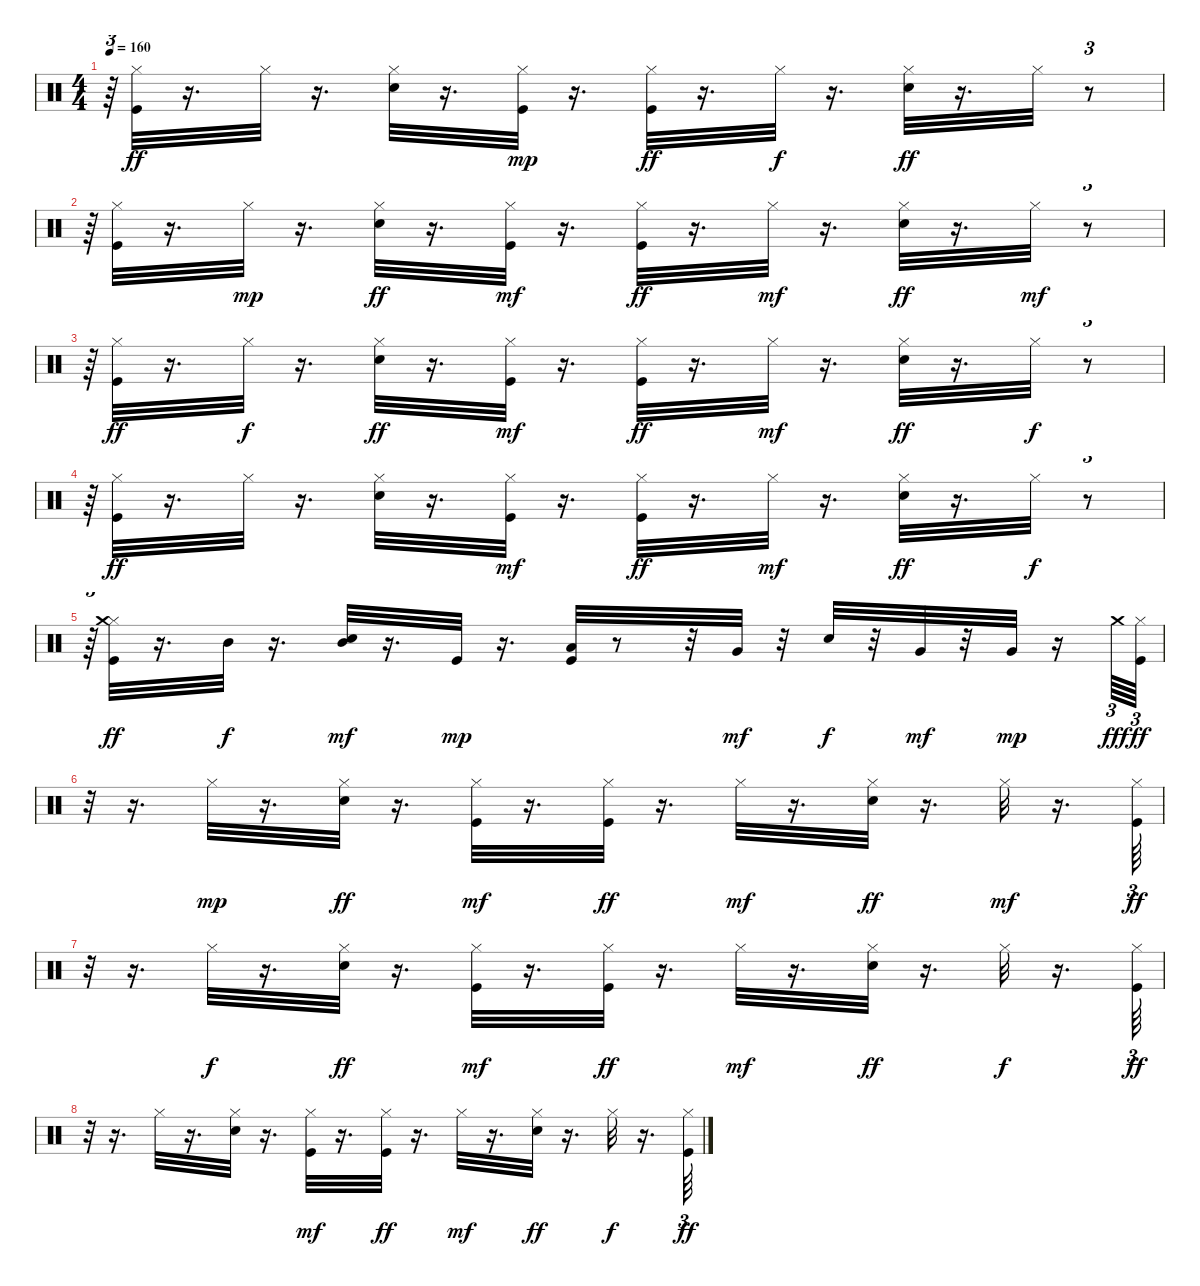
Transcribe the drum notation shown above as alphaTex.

\track "" {instrument percussion}
\staff {score}
\articulation defaults
\ts (4 4)
\tempo 160
\clef neutral
\ks c
r.64{tu (3 2) dy f} ("Kick (hit)" "Hi-Hat (closed)").32{dy ff} r.16{d} "Hi-Hat (closed)".32 r.16{d} ("Hi-Hat (closed)" "Electric Snare (hit)").32 r.16{d} ("Kick (hit)" "Hi-Hat (closed)").32{dy mp} r.16{d} ("Kick (hit)" "Hi-Hat (closed)").32{dy ff} r.16{d} "Hi-Hat (closed)".32{dy f} r.16{d} ("Hi-Hat (closed)" "Electric Snare (hit)").32{dy ff} r.16{d} "Hi-Hat (closed)".32 r.8{tu (3 2)} |
r.64{tu (3 2)} ("Kick (hit)" "Hi-Hat (closed)").32 r.16{d} "Hi-Hat (closed)".32{dy mp} r.16{d} ("Hi-Hat (closed)" "Electric Snare (hit)").32{dy ff} r.16{d} ("Kick (hit)" "Hi-Hat (closed)").32{dy mf} r.16{d} ("Kick (hit)" "Hi-Hat (closed)").32{dy ff} r.16{d} "Hi-Hat (closed)".32{dy mf} r.16{d} ("Hi-Hat (closed)" "Electric Snare (hit)").32{dy ff} r.16{d} "Hi-Hat (closed)".32{dy mf} r.8{tu (3 2)} |
r.64{tu (3 2)} ("Kick (hit)" "Hi-Hat (closed)").32{dy ff} r.16{d} "Hi-Hat (closed)".32{dy f} r.16{d} ("Hi-Hat (closed)" "Electric Snare (hit)").32{dy ff} r.16{d} ("Kick (hit)" "Hi-Hat (closed)").32{dy mf} r.16{d} ("Kick (hit)" "Hi-Hat (closed)").32{dy ff} r.16{d} "Hi-Hat (closed)".32{dy mf} r.16{d} ("Hi-Hat (closed)" "Electric Snare (hit)").32{dy ff} r.16{d} "Hi-Hat (closed)".32{dy f} r.8{tu (3 2)} |
r.64{tu (3 2)} ("Kick (hit)" "Hi-Hat (closed)").32{dy ff} r.16{d} "Hi-Hat (closed)".32 r.16{d} ("Hi-Hat (closed)" "Electric Snare (hit)").32 r.16{d} ("Kick (hit)" "Hi-Hat (closed)").32{dy mf} r.16{d} ("Kick (hit)" "Hi-Hat (closed)").32{dy ff} r.16{d} "Hi-Hat (closed)".32{dy mf} r.16{d} ("Hi-Hat (closed)" "Electric Snare (hit)").32{dy ff} r.16{d} "Hi-Hat (closed)".32{dy f} r.8{tu (3 2)} |
r.64{tu (3 2)} ("Kick (hit)" "Hi-Hat (closed)" "Crash medium (hit)").32{dy ff} r.16{d} "Mid Tom (hit)".32{dy f} r.16{d} ("Electric Snare (hit)" "Mid Tom (hit)").32{dy mf} r.16{d} "Kick (hit)".32{dy mp} r.16{d} ("Kick (hit)" "Low Tom (hit)").32 r.8 r.32 "Very Low Tom (hit)".32{dy mf} r.32 "Electric Snare (hit)".32{dy f} r.32 "Very Low Tom (hit)".32{dy mf} r.32 "Very Low Tom (hit)".32{dy mp} r.16 "Crash medium (hit)".64{tu (3 2) dy fff} ("Kick (hit)" "Hi-Hat (closed)").64{tu (3 2) dy ff} |
r.32{tu (3 2)} r.16{d} "Hi-Hat (closed)".32{dy mp} r.16{d} ("Hi-Hat (closed)" "Electric Snare (hit)").32{dy ff} r.16{d} ("Kick (hit)" "Hi-Hat (closed)").32{dy mf} r.16{d} ("Kick (hit)" "Hi-Hat (closed)").32{dy ff} r.16{d} "Hi-Hat (closed)".32{dy mf} r.16{d} ("Hi-Hat (closed)" "Electric Snare (hit)").32{dy ff} r.16{d} "Hi-Hat (closed)".32{dy mf} r.16{d} ("Kick (hit)" "Hi-Hat (closed)").64{tu (3 2) dy ff} |
r.32{tu (3 2)} r.16{d} "Hi-Hat (closed)".32{dy f} r.16{d} ("Hi-Hat (closed)" "Electric Snare (hit)").32{dy ff} r.16{d} ("Kick (hit)" "Hi-Hat (closed)").32{dy mf} r.16{d} ("Kick (hit)" "Hi-Hat (closed)").32{dy ff} r.16{d} "Hi-Hat (closed)".32{dy mf} r.16{d} ("Hi-Hat (closed)" "Electric Snare (hit)").32{dy ff} r.16{d} "Hi-Hat (closed)".32{dy f} r.16{d} ("Kick (hit)" "Hi-Hat (closed)").64{tu (3 2) dy ff} |
r.32{tu (3 2)} r.16{d} "Hi-Hat (closed)".32 r.16{d} ("Hi-Hat (closed)" "Electric Snare (hit)").32 r.16{d} ("Kick (hit)" "Hi-Hat (closed)").32{dy mf} r.16{d} ("Kick (hit)" "Hi-Hat (closed)").32{dy ff} r.16{d} "Hi-Hat (closed)".32{dy mf} r.16{d} ("Hi-Hat (closed)" "Electric Snare (hit)").32{dy ff} r.16{d} "Hi-Hat (closed)".32{dy f} r.16{d} ("Kick (hit)" "Hi-Hat (closed)").64{tu (3 2) dy ff}
